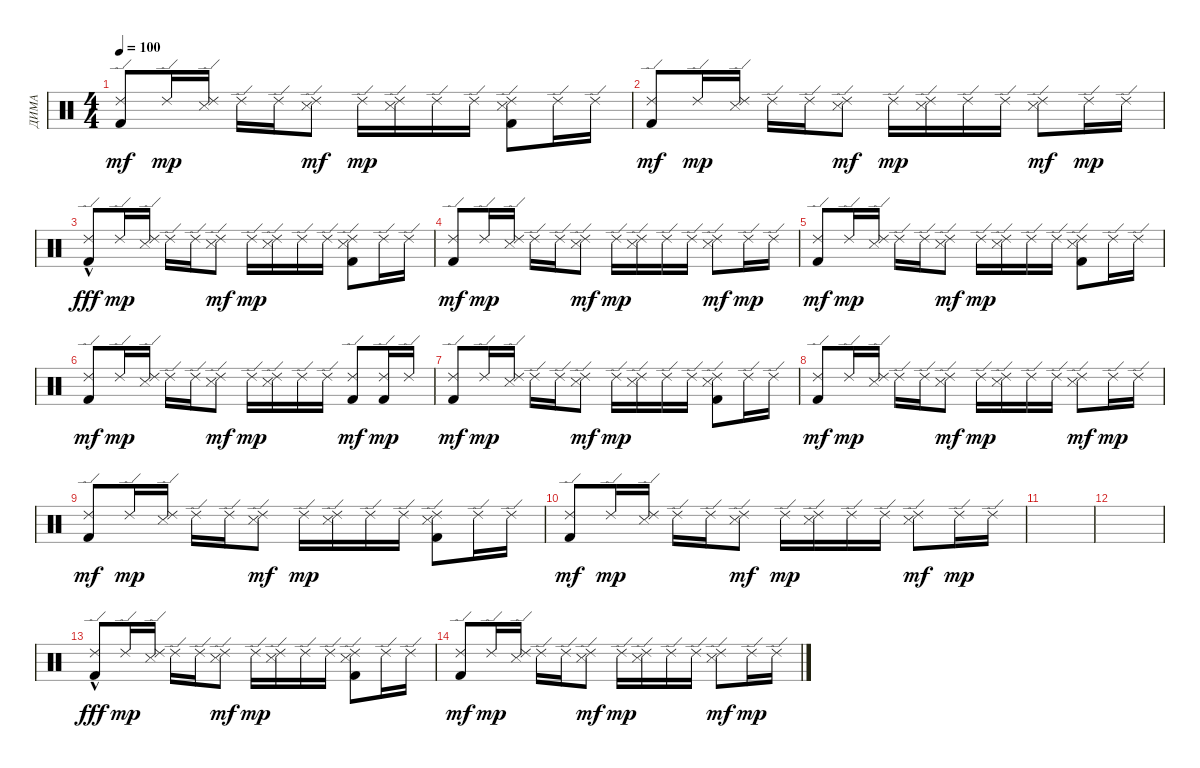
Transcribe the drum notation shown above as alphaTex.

\track ("ДИМА" "ДИМА") {instrument percussion}
\staff {score}
\articulation defaults
\ts (4 4)
\tempo 100
\clef neutral
\ks c
("Ride (edge) 2" "Kick (hit) 2").8{dy mf} "Ride (edge) 2".16{dy mp} ("Ride (edge) 2" "Snare (side stick) 3").16 "Ride (edge) 2".16 "Ride (edge) 2".16 ("Ride (edge) 2" "Snare (side stick) 3").8{dy mf} "Ride (edge) 2".16{dy mp} ("Ride (edge) 2" "Snare (side stick) 3").16 "Ride (edge) 2".16 "Ride (edge) 2".16 ("Ride (edge) 2" "Snare (side stick) 3" "Kick (hit) 2").8 "Ride (edge) 2".16 "Ride (edge) 2".16 |
("Ride (edge) 2" "Kick (hit) 2").8{dy mf} "Ride (edge) 2".16{dy mp} ("Ride (edge) 2" "Snare (side stick) 3").16 "Ride (edge) 2".16 "Ride (edge) 2".16 ("Ride (edge) 2" "Snare (side stick) 3").8{dy mf} "Ride (edge) 2".16{dy mp} ("Ride (edge) 2" "Snare (side stick) 3").16 "Ride (edge) 2".16 "Ride (edge) 2".16 ("Ride (edge) 2" "Snare (side stick) 3").8{dy mf} "Ride (edge) 2".16{dy mp} "Ride (edge) 2".16 |
("Ride (edge) 2" "Kick (hit) 2"{hac}).8{dy fff} "Ride (edge) 2".16{dy mp} ("Ride (edge) 2" "Snare (side stick) 3").16 "Ride (edge) 2".16 "Ride (edge) 2".16 ("Ride (edge) 2" "Snare (side stick) 3").8{dy mf} "Ride (edge) 2".16{dy mp} ("Ride (edge) 2" "Snare (side stick) 3").16 "Ride (edge) 2".16 "Ride (edge) 2".16 ("Ride (edge) 2" "Snare (side stick) 3" "Kick (hit) 2").8 "Ride (edge) 2".16 "Ride (edge) 2".16 |
("Ride (edge) 2" "Kick (hit) 2").8{dy mf} "Ride (edge) 2".16{dy mp} ("Ride (edge) 2" "Snare (side stick) 3").16 "Ride (edge) 2".16 "Ride (edge) 2".16 ("Ride (edge) 2" "Snare (side stick) 3").8{dy mf} "Ride (edge) 2".16{dy mp} ("Ride (edge) 2" "Snare (side stick) 3").16 "Ride (edge) 2".16 "Ride (edge) 2".16 ("Ride (edge) 2" "Snare (side stick) 3").8{dy mf} "Ride (edge) 2".16{dy mp} "Ride (edge) 2".16 |
("Ride (edge) 2" "Kick (hit) 2").8{dy mf} "Ride (edge) 2".16{dy mp} ("Ride (edge) 2" "Snare (side stick) 3").16 "Ride (edge) 2".16 "Ride (edge) 2".16 ("Ride (edge) 2" "Snare (side stick) 3").8{dy mf} "Ride (edge) 2".16{dy mp} ("Ride (edge) 2" "Snare (side stick) 3").16 "Ride (edge) 2".16 "Ride (edge) 2".16 ("Ride (edge) 2" "Snare (side stick) 3" "Kick (hit) 2").8 "Ride (edge) 2".16 "Ride (edge) 2".16 |
("Ride (edge) 2" "Kick (hit) 2").8{dy mf} "Ride (edge) 2".16{dy mp} ("Ride (edge) 2" "Snare (side stick) 3").16 "Ride (edge) 2".16 "Ride (edge) 2".16 ("Ride (edge) 2" "Snare (side stick) 3").8{dy mf} "Ride (edge) 2".16{dy mp} ("Ride (edge) 2" "Snare (side stick) 3").16 "Ride (edge) 2".16 "Ride (edge) 2".16 ("Ride (edge) 2" "Kick (hit) 2").8{dy mf} ("Ride (edge) 2" "Kick (hit) 2").16{dy mp} "Ride (edge) 2".16 |
("Ride (edge) 2" "Kick (hit) 2").8{dy mf} "Ride (edge) 2".16{dy mp} ("Ride (edge) 2" "Snare (side stick) 3").16 "Ride (edge) 2".16 "Ride (edge) 2".16 ("Ride (edge) 2" "Snare (side stick) 3").8{dy mf} "Ride (edge) 2".16{dy mp} ("Ride (edge) 2" "Snare (side stick) 3").16 "Ride (edge) 2".16 "Ride (edge) 2".16 ("Ride (edge) 2" "Snare (side stick) 3" "Kick (hit) 2").8 "Ride (edge) 2".16 "Ride (edge) 2".16 |
("Ride (edge) 2" "Kick (hit) 2").8{dy mf} "Ride (edge) 2".16{dy mp} ("Ride (edge) 2" "Snare (side stick) 3").16 "Ride (edge) 2".16 "Ride (edge) 2".16 ("Ride (edge) 2" "Snare (side stick) 3").8{dy mf} "Ride (edge) 2".16{dy mp} ("Ride (edge) 2" "Snare (side stick) 3").16 "Ride (edge) 2".16 "Ride (edge) 2".16 ("Ride (edge) 2" "Snare (side stick) 3").8{dy mf} "Ride (edge) 2".16{dy mp} "Ride (edge) 2".16 |
("Ride (edge) 2" "Kick (hit) 2").8{dy mf} "Ride (edge) 2".16{dy mp} ("Ride (edge) 2" "Snare (side stick) 3").16 "Ride (edge) 2".16 "Ride (edge) 2".16 ("Ride (edge) 2" "Snare (side stick) 3").8{dy mf} "Ride (edge) 2".16{dy mp} ("Ride (edge) 2" "Snare (side stick) 3").16 "Ride (edge) 2".16 "Ride (edge) 2".16 ("Ride (edge) 2" "Snare (side stick) 3" "Kick (hit) 2").8 "Ride (edge) 2".16 "Ride (edge) 2".16 |
("Ride (edge) 2" "Kick (hit) 2").8{dy mf} "Ride (edge) 2".16{dy mp} ("Ride (edge) 2" "Snare (side stick) 3").16 "Ride (edge) 2".16 "Ride (edge) 2".16 ("Ride (edge) 2" "Snare (side stick) 3").8{dy mf} "Ride (edge) 2".16{dy mp} ("Ride (edge) 2" "Snare (side stick) 3").16 "Ride (edge) 2".16 "Ride (edge) 2".16 ("Ride (edge) 2" "Snare (side stick) 3").8{dy mf} "Ride (edge) 2".16{dy mp} "Ride (edge) 2".16 |
|
|
("Ride (edge) 2" "Kick (hit) 2"{hac}).8{dy fff} "Ride (edge) 2".16{dy mp} ("Ride (edge) 2" "Snare (side stick) 3").16 "Ride (edge) 2".16 "Ride (edge) 2".16 ("Ride (edge) 2" "Snare (side stick) 3").8{dy mf} "Ride (edge) 2".16{dy mp} ("Ride (edge) 2" "Snare (side stick) 3").16 "Ride (edge) 2".16 "Ride (edge) 2".16 ("Ride (edge) 2" "Snare (side stick) 3" "Kick (hit) 2").8 "Ride (edge) 2".16 "Ride (edge) 2".16 |
("Ride (edge) 2" "Kick (hit) 2").8{dy mf} "Ride (edge) 2".16{dy mp} ("Ride (edge) 2" "Snare (side stick) 3").16 "Ride (edge) 2".16 "Ride (edge) 2".16 ("Ride (edge) 2" "Snare (side stick) 3").8{dy mf} "Ride (edge) 2".16{dy mp} ("Ride (edge) 2" "Snare (side stick) 3").16 "Ride (edge) 2".16 "Ride (edge) 2".16 ("Ride (edge) 2" "Snare (side stick) 3").8{dy mf} "Ride (edge) 2".16{dy mp} "Ride (edge) 2".16
